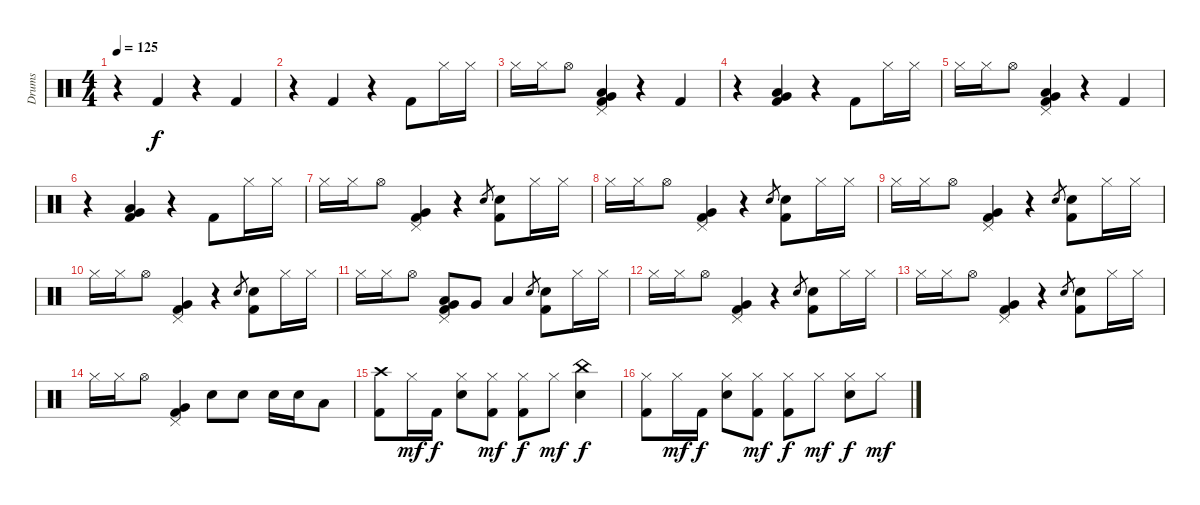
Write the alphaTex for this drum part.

\track ("Drums" "Drums") {instrument percussion}
\staff {score}
\articulation defaults
\ts (4 4)
\tempo 125
\clef neutral
\ks c
r.4{dy f} "Kick (hit) 2".4 r.4 "Kick (hit) 2".4 |
r.4 "Kick (hit) 2".4 r.4 "Kick (hit) 2".8 "Hi-Hat (closed)".16 "Hi-Hat (closed)".16 |
"Hi-Hat (closed)".16 "Hi-Hat (closed)".16 "Hi-Hat (open)".8 ("Pedal Hi-Hat (hit)" "Low Tom (hit)" "Very Low Tom (hit)" "Kick (hit) 2").4 r.4 "Kick (hit) 2".4 |
r.4 ("Low Tom (hit)" "Very Low Tom (hit)" "Kick (hit) 2").4 r.4 "Kick (hit) 2".8 "Hi-Hat (closed)".16 "Hi-Hat (closed)".16 |
"Hi-Hat (closed)".16 "Hi-Hat (closed)".16 "Hi-Hat (open)".8 ("Pedal Hi-Hat (hit)" "Low Tom (hit)" "Very Low Tom (hit)" "Kick (hit) 2").4 r.4 "Kick (hit) 2".4 |
r.4 ("Low Tom (hit)" "Very Low Tom (hit)" "Kick (hit) 2").4 r.4 "Kick (hit) 2".8 "Hi-Hat (closed)".16 "Hi-Hat (closed)".16 |
"Hi-Hat (closed)".16 "Hi-Hat (closed)".16 "Hi-Hat (open)".8 ("Pedal Hi-Hat (hit)" "Very Low Tom (hit)" "Kick (hit) 2").4 r.4 "Electric Snare (hit)".8{gr} ("Electric Snare (hit)" "Kick (hit) 2").8 "Hi-Hat (closed)".16 "Hi-Hat (closed)".16 |
"Hi-Hat (closed)".16 "Hi-Hat (closed)".16 "Hi-Hat (open)".8 ("Pedal Hi-Hat (hit)" "Very Low Tom (hit)" "Kick (hit) 2").4 r.4 "Electric Snare (hit)".8{gr} ("Electric Snare (hit)" "Kick (hit) 2").8 "Hi-Hat (closed)".16 "Hi-Hat (closed)".16 |
"Hi-Hat (closed)".16 "Hi-Hat (closed)".16 "Hi-Hat (open)".8 ("Pedal Hi-Hat (hit)" "Very Low Tom (hit)" "Kick (hit) 2").4 r.4 "Electric Snare (hit)".8{gr} ("Electric Snare (hit)" "Kick (hit) 2").8 "Hi-Hat (closed)".16 "Hi-Hat (closed)".16 |
"Hi-Hat (closed)".16 "Hi-Hat (closed)".16 "Hi-Hat (open)".8 ("Pedal Hi-Hat (hit)" "Very Low Tom (hit)" "Kick (hit) 2").4 r.4 "Electric Snare (hit)".8{gr} ("Electric Snare (hit)" "Kick (hit) 2").8 "Hi-Hat (closed)".16 "Hi-Hat (closed)".16 |
"Hi-Hat (closed)".16 "Hi-Hat (closed)".16 "Hi-Hat (open)".8 ("Pedal Hi-Hat (hit)" "Low Tom (hit)" "Very Low Tom (hit)" "Kick (hit) 2").8 "Very Low Tom (hit)".8 "Low Floor Tom (hit)".4 "Electric Snare (hit)".8{gr} ("Electric Snare (hit)" "Kick (hit) 2").8 "Hi-Hat (closed)".16 "Hi-Hat (closed)".16 |
"Hi-Hat (closed)".16 "Hi-Hat (closed)".16 "Hi-Hat (open)".8 ("Pedal Hi-Hat (hit)" "Very Low Tom (hit)" "Kick (hit) 2").4 r.4 "Electric Snare (hit)".8{gr} ("Electric Snare (hit)" "Kick (hit) 2").8 "Hi-Hat (closed)".16 "Hi-Hat (closed)".16 |
"Hi-Hat (closed)".16 "Hi-Hat (closed)".16 "Hi-Hat (open)".8 ("Pedal Hi-Hat (hit)" "Very Low Tom (hit)" "Kick (hit) 2").4 r.4 "Electric Snare (hit)".8{gr} ("Electric Snare (hit)" "Kick (hit) 2").8 "Hi-Hat (closed)".16 "Hi-Hat (closed)".16 |
"Hi-Hat (closed)".16 "Hi-Hat (closed)".16 "Hi-Hat (open)".8 ("Pedal Hi-Hat (hit)" "Very Low Tom (hit)" "Kick (hit) 2").4 "Electric Snare (hit)".8 "Electric Snare (hit)".8 "Electric Snare (hit)".16 "Electric Snare (hit)".16 "Low Tom (hit)".8 |
("Crash high (hit)" "Kick (hit) 2").8 "Hi-Hat (closed)".16{dy mf} "Kick (hit) 2".16{dy f} ("Hi-Hat (closed)" "Electric Snare (hit)").8 ("Hi-Hat (closed)" "Kick (hit) 2").8{dy mf} ("Hi-Hat (closed)" "Kick (hit) 2").8{dy f} "Hi-Hat (closed)".8{dy mf} ("China (hit)" "Electric Snare (hit)").4{dy f} |
("Hi-Hat (closed)" "Kick (hit) 2").8 "Hi-Hat (closed)".16{dy mf} "Kick (hit) 2".16{dy f} ("Hi-Hat (closed)" "Electric Snare (hit)").8 ("Hi-Hat (closed)" "Kick (hit) 2").8{dy mf} ("Hi-Hat (closed)" "Kick (hit) 2").8{dy f} "Hi-Hat (closed)".8{dy mf} ("Hi-Hat (closed)" "Electric Snare (hit)").8{dy f} "Hi-Hat (closed)".8{dy mf}
